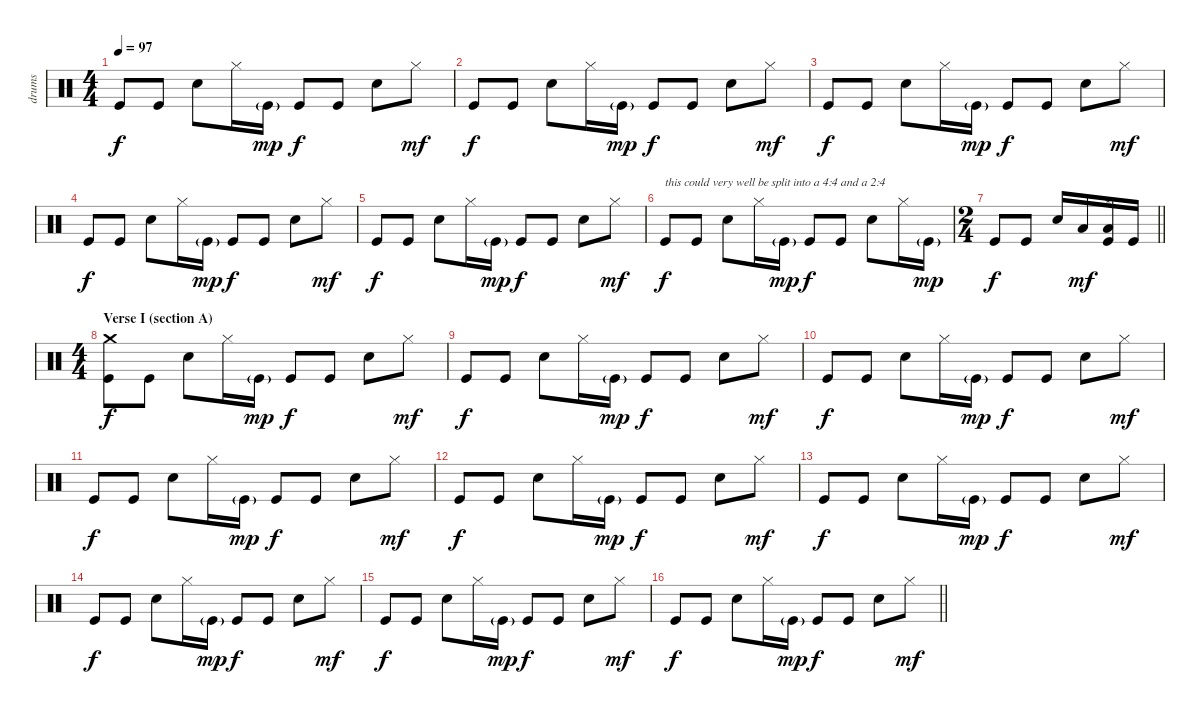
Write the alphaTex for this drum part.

\track ("drums" "drums") {instrument percussion}
\staff {score}
\articulation defaults
\ts (4 4)
\tempo 97
\clef neutral
\ks c "Kick (hit)".8{dy f} "Kick (hit)".8 "Electric Snare (hit)".8 "Hi-Hat (closed)".16 "Kick (hit)"{g}.16{dy mp} "Kick (hit)".8{dy f} "Kick (hit)".8 "Electric Snare (hit)".8 "Hi-Hat (closed)".8{dy mf}
|
"Kick (hit)".8{dy f} "Kick (hit)".8 "Electric Snare (hit)".8 "Hi-Hat (closed)".16 "Kick (hit)"{g}.16{dy mp} "Kick (hit)".8{dy f} "Kick (hit)".8 "Electric Snare (hit)".8 "Hi-Hat (closed)".8{dy mf} |
"Kick (hit)".8{dy f} "Kick (hit)".8 "Electric Snare (hit)".8 "Hi-Hat (closed)".16 "Kick (hit)"{g}.16{dy mp} "Kick (hit)".8{dy f} "Kick (hit)".8 "Electric Snare (hit)".8 "Hi-Hat (closed)".8{dy mf} |
"Kick (hit)".8{dy f} "Kick (hit)".8 "Electric Snare (hit)".8 "Hi-Hat (closed)".16 "Kick (hit)"{g}.16{dy mp} "Kick (hit)".8{dy f} "Kick (hit)".8 "Electric Snare (hit)".8 "Hi-Hat (closed)".8{dy mf} |
"Kick (hit)".8{dy f} "Kick (hit)".8 "Electric Snare (hit)".8 "Hi-Hat (closed)".16 "Kick (hit)"{g}.16{dy mp} "Kick (hit)".8{dy f} "Kick (hit)".8 "Electric Snare (hit)".8 "Hi-Hat (closed)".8{dy mf} |
"Kick (hit)".8{txt "this could very well be split into a 4:4 and a 2:4" dy f} "Kick (hit)".8 "Electric Snare (hit)".8 "Hi-Hat (closed)".16 "Kick (hit)"{g}.16{dy mp} "Kick (hit)".8{dy f} "Kick (hit)".8 "Electric Snare (hit)".8 "Hi-Hat (closed)".16 "Kick (hit)"{g}.16{dy mp} |
\ts (2 4)
\barLineRight lightlight "Kick (hit)".8{dy f} "Kick (hit)".8 "Electric Snare (hit)".16 "Low Floor Tom (hit)".16{dy mf}
("Hi-Hat (closed)" "Low Floor Tom (hit)" "Kick (hit)").16 "Kick (hit)".16 |
\ts (4 4)
\section ("" "Verse I (section A)")
("Crash medium (hit)" "Kick (hit)").8{dy f} "Kick (hit)".8 "Electric Snare (hit)".8 "Hi-Hat (closed)".16 "Kick (hit)"{g}.16{dy mp} "Kick (hit)".8{dy f} "Kick (hit)".8 "Electric Snare (hit)".8 "Hi-Hat (closed)".8{dy mf} |
"Kick (hit)".8{dy f} "Kick (hit)".8 "Electric Snare (hit)".8 "Hi-Hat (closed)".16 "Kick (hit)"{g}.16{dy mp} "Kick (hit)".8{dy f} "Kick (hit)".8 "Electric Snare (hit)".8 "Hi-Hat (closed)".8{dy mf} |
"Kick (hit)".8{dy f} "Kick (hit)".8 "Electric Snare (hit)".8 "Hi-Hat (closed)".16 "Kick (hit)"{g}.16{dy mp} "Kick (hit)".8{dy f} "Kick (hit)".8 "Electric Snare (hit)".8 "Hi-Hat (closed)".8{dy mf} |
"Kick (hit)".8{dy f} "Kick (hit)".8 "Electric Snare (hit)".8 "Hi-Hat (closed)".16 "Kick (hit)"{g}.16{dy mp} "Kick (hit)".8{dy f} "Kick (hit)".8 "Electric Snare (hit)".8 "Hi-Hat (closed)".8{dy mf} |
"Kick (hit)".8{dy f} "Kick (hit)".8 "Electric Snare (hit)".8 "Hi-Hat (closed)".16 "Kick (hit)"{g}.16{dy mp} "Kick (hit)".8{dy f} "Kick (hit)".8 "Electric Snare (hit)".8 "Hi-Hat (closed)".8{dy mf} |
"Kick (hit)".8{dy f} "Kick (hit)".8 "Electric Snare (hit)".8 "Hi-Hat (closed)".16 "Kick (hit)"{g}.16{dy mp} "Kick (hit)".8{dy f} "Kick (hit)".8 "Electric Snare (hit)".8 "Hi-Hat (closed)".8{dy mf} |
"Kick (hit)".8{dy f} "Kick (hit)".8 "Electric Snare (hit)".8 "Hi-Hat (closed)".16 "Kick (hit)"{g}.16{dy mp} "Kick (hit)".8{dy f} "Kick (hit)".8 "Electric Snare (hit)".8 "Hi-Hat (closed)".8{dy mf} |
"Kick (hit)".8{dy f} "Kick (hit)".8 "Electric Snare (hit)".8 "Hi-Hat (closed)".16 "Kick (hit)"{g}.16{dy mp} "Kick (hit)".8{dy f} "Kick (hit)".8 "Electric Snare (hit)".8 "Hi-Hat (closed)".8{dy mf} |
\barLineRight lightlight "Kick (hit)".8{dy f} "Kick (hit)".8 "Electric Snare (hit)".8 "Hi-Hat (closed)".16 "Kick (hit)"{g}.16{dy mp} "Kick (hit)".8{dy f} "Kick (hit)".8 "Electric Snare (hit)".8 "Hi-Hat (closed)".8{dy mf}
